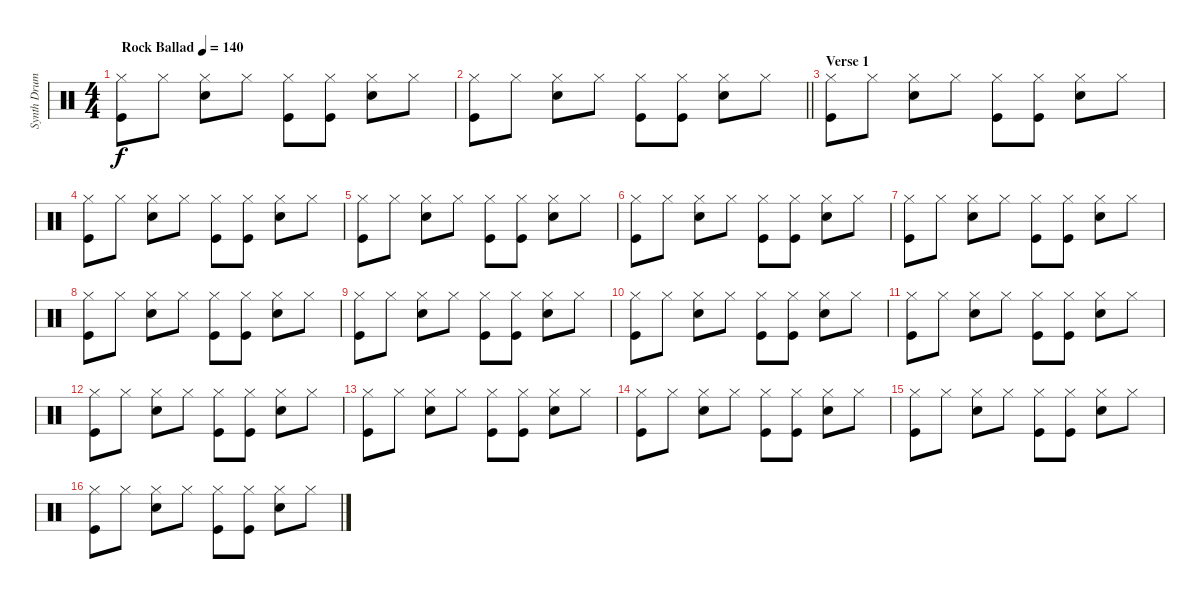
\track ("Synth Drums" "Synth Drum") {instrument percussion}
\staff {score}
\articulation defaults
\ts (4 4)
\tempo (140 "Rock Ballad")
\clef neutral
\ks c
("Hi-Hat (closed)" "Kick (hit)").8{dy f} "Hi-Hat (closed)".8 ("Hi-Hat (closed)" "Snare (hit) 2").8 "Hi-Hat (closed)".8 ("Hi-Hat (closed)" "Kick (hit)").8 ("Hi-Hat (closed)" "Kick (hit)").8 ("Hi-Hat (closed)" "Snare (hit) 2").8 "Hi-Hat (closed)".8 |
\barLineRight lightlight
("Hi-Hat (closed)" "Kick (hit)").8 "Hi-Hat (closed)".8 ("Hi-Hat (closed)" "Snare (hit) 2").8 "Hi-Hat (closed)".8 ("Hi-Hat (closed)" "Kick (hit)").8 ("Hi-Hat (closed)" "Kick (hit)").8 ("Hi-Hat (closed)" "Snare (hit) 2").8 "Hi-Hat (closed)".8 |
\section ("" "Verse 1")
("Hi-Hat (closed)" "Kick (hit)").8 "Hi-Hat (closed)".8 ("Hi-Hat (closed)" "Snare (hit) 2").8 "Hi-Hat (closed)".8 ("Hi-Hat (closed)" "Kick (hit)").8 ("Hi-Hat (closed)" "Kick (hit)").8 ("Hi-Hat (closed)" "Snare (hit) 2").8 "Hi-Hat (closed)".8 |
("Hi-Hat (closed)" "Kick (hit)").8 "Hi-Hat (closed)".8 ("Hi-Hat (closed)" "Snare (hit) 2").8 "Hi-Hat (closed)".8 ("Hi-Hat (closed)" "Kick (hit)").8 ("Hi-Hat (closed)" "Kick (hit)").8 ("Hi-Hat (closed)" "Snare (hit) 2").8 "Hi-Hat (closed)".8 |
("Hi-Hat (closed)" "Kick (hit)").8 "Hi-Hat (closed)".8 ("Hi-Hat (closed)" "Snare (hit) 2").8 "Hi-Hat (closed)".8 ("Hi-Hat (closed)" "Kick (hit)").8 ("Hi-Hat (closed)" "Kick (hit)").8 ("Hi-Hat (closed)" "Snare (hit) 2").8 "Hi-Hat (closed)".8 |
("Hi-Hat (closed)" "Kick (hit)").8 "Hi-Hat (closed)".8 ("Hi-Hat (closed)" "Snare (hit) 2").8 "Hi-Hat (closed)".8 ("Hi-Hat (closed)" "Kick (hit)").8 ("Hi-Hat (closed)" "Kick (hit)").8 ("Hi-Hat (closed)" "Snare (hit) 2").8 "Hi-Hat (closed)".8 |
("Hi-Hat (closed)" "Kick (hit)").8 "Hi-Hat (closed)".8 ("Hi-Hat (closed)" "Snare (hit) 2").8 "Hi-Hat (closed)".8 ("Hi-Hat (closed)" "Kick (hit)").8 ("Hi-Hat (closed)" "Kick (hit)").8 ("Hi-Hat (closed)" "Snare (hit) 2").8 "Hi-Hat (closed)".8 |
("Hi-Hat (closed)" "Kick (hit)").8 "Hi-Hat (closed)".8 ("Hi-Hat (closed)" "Snare (hit) 2").8 "Hi-Hat (closed)".8 ("Hi-Hat (closed)" "Kick (hit)").8 ("Hi-Hat (closed)" "Kick (hit)").8 ("Hi-Hat (closed)" "Snare (hit) 2").8 "Hi-Hat (closed)".8 |
("Hi-Hat (closed)" "Kick (hit)").8 "Hi-Hat (closed)".8 ("Hi-Hat (closed)" "Snare (hit) 2").8 "Hi-Hat (closed)".8 ("Hi-Hat (closed)" "Kick (hit)").8 ("Hi-Hat (closed)" "Kick (hit)").8 ("Hi-Hat (closed)" "Snare (hit) 2").8 "Hi-Hat (closed)".8 |
("Hi-Hat (closed)" "Kick (hit)").8 "Hi-Hat (closed)".8 ("Hi-Hat (closed)" "Snare (hit) 2").8 "Hi-Hat (closed)".8 ("Hi-Hat (closed)" "Kick (hit)").8 ("Hi-Hat (closed)" "Kick (hit)").8 ("Hi-Hat (closed)" "Snare (hit) 2").8 "Hi-Hat (closed)".8 |
("Hi-Hat (closed)" "Kick (hit)").8 "Hi-Hat (closed)".8 ("Hi-Hat (closed)" "Snare (hit) 2").8 "Hi-Hat (closed)".8 ("Hi-Hat (closed)" "Kick (hit)").8 ("Hi-Hat (closed)" "Kick (hit)").8 ("Hi-Hat (closed)" "Snare (hit) 2").8 "Hi-Hat (closed)".8 |
("Hi-Hat (closed)" "Kick (hit)").8 "Hi-Hat (closed)".8 ("Hi-Hat (closed)" "Snare (hit) 2").8 "Hi-Hat (closed)".8 ("Hi-Hat (closed)" "Kick (hit)").8 ("Hi-Hat (closed)" "Kick (hit)").8 ("Hi-Hat (closed)" "Snare (hit) 2").8 "Hi-Hat (closed)".8 |
("Hi-Hat (closed)" "Kick (hit)").8 "Hi-Hat (closed)".8 ("Hi-Hat (closed)" "Snare (hit) 2").8 "Hi-Hat (closed)".8 ("Hi-Hat (closed)" "Kick (hit)").8 ("Hi-Hat (closed)" "Kick (hit)").8 ("Hi-Hat (closed)" "Snare (hit) 2").8 "Hi-Hat (closed)".8 |
("Hi-Hat (closed)" "Kick (hit)").8 "Hi-Hat (closed)".8 ("Hi-Hat (closed)" "Snare (hit) 2").8 "Hi-Hat (closed)".8 ("Hi-Hat (closed)" "Kick (hit)").8 ("Hi-Hat (closed)" "Kick (hit)").8 ("Hi-Hat (closed)" "Snare (hit) 2").8 "Hi-Hat (closed)".8 |
("Hi-Hat (closed)" "Kick (hit)").8 "Hi-Hat (closed)".8 ("Hi-Hat (closed)" "Snare (hit) 2").8 "Hi-Hat (closed)".8 ("Hi-Hat (closed)" "Kick (hit)").8 ("Hi-Hat (closed)" "Kick (hit)").8 ("Hi-Hat (closed)" "Snare (hit) 2").8 "Hi-Hat (closed)".8 |
("Hi-Hat (closed)" "Kick (hit)").8 "Hi-Hat (closed)".8 ("Hi-Hat (closed)" "Snare (hit) 2").8 "Hi-Hat (closed)".8 ("Hi-Hat (closed)" "Kick (hit)").8 ("Hi-Hat (closed)" "Kick (hit)").8 ("Hi-Hat (closed)" "Snare (hit) 2").8 "Hi-Hat (closed)".8
